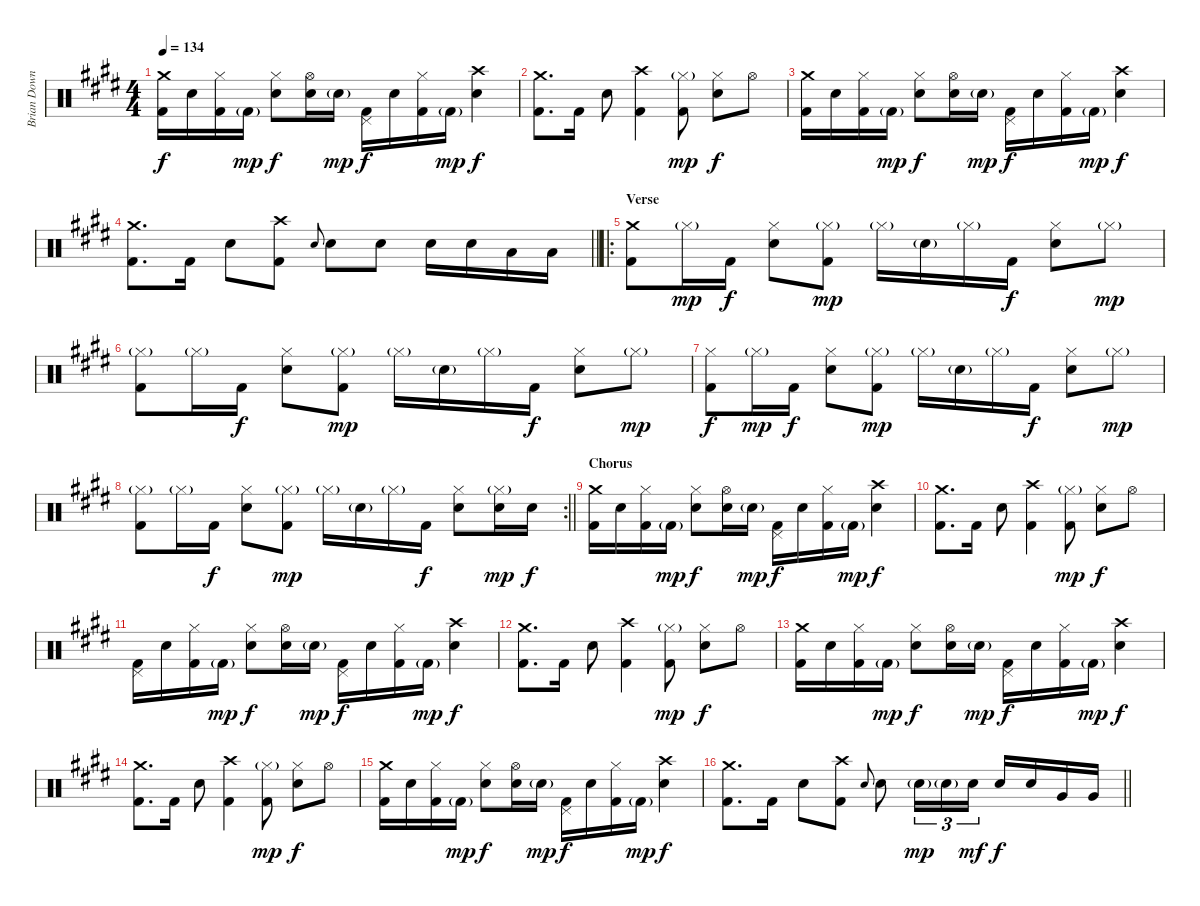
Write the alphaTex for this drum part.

\track ("Brian Downey" "Brian Down") {instrument percussion}
\staff {score}
\articulation defaults
\ts (4 4)
\tempo 134
\clef neutral
\ks e
("Crash medium (hit)" "Kick (hit) 2").16{dy f} "Electric Snare (hit)".16 ("Hi-Hat (closed)" "Kick (hit) 2").16 "Kick (hit) 2"{g}.16{dy mp} ("Hi-Hat (closed)" "Electric Snare (hit)").8{dy f} ("Hi-Hat (open)" "Electric Snare (hit)").16 "Electric Snare (hit)"{g}.16{dy mp} ("Pedal Hi-Hat (hit)" "Kick (hit) 2").16{dy f} "Electric Snare (hit)".16 ("Hi-Hat (closed)" "Kick (hit) 2").16 "Kick (hit) 2"{g}.16{dy mp} ("Crash high (hit)" "Electric Snare (hit)").4{dy f} |
("Crash medium (hit)" "Kick (hit) 2").8{d} "Kick (hit) 2".16 "Electric Snare (hit)".8 ("Crash high (hit)" "Kick (hit) 2").4 ("Hi-Hat (closed)"{g} "Kick (hit) 2").8{dy mp} ("Hi-Hat (closed)" "Electric Snare (hit)").8{dy f} "Hi-Hat (open)".8 |
("Crash medium (hit)" "Kick (hit) 2").16 "Electric Snare (hit)".16 ("Hi-Hat (closed)" "Kick (hit) 2").16 "Kick (hit) 2"{g}.16{dy mp} ("Hi-Hat (closed)" "Electric Snare (hit)").8{dy f} ("Hi-Hat (open)" "Electric Snare (hit)").16 "Electric Snare (hit)"{g}.16{dy mp} ("Pedal Hi-Hat (hit)" "Kick (hit) 2").16{dy f} "Electric Snare (hit)".16 ("Hi-Hat (closed)" "Kick (hit) 2").16 "Kick (hit) 2"{g}.16{dy mp} ("Crash high (hit)" "Electric Snare (hit)").4{dy f} |
\barLineRight lightlight
("Crash medium (hit)" "Kick (hit) 2").8{d} "Kick (hit) 2".16 "Electric Snare (hit)".8 ("Crash high (hit)" "Kick (hit) 2").8 "Electric Snare (hit)".8{gr onbeat} "Electric Snare (hit)".8 "Electric Snare (hit)".8 "Electric Snare (hit)".16 "Electric Snare (hit)".16 "Low Tom (hit)".16 "Low Tom (hit)".16 |
\ro
\section ("" "Verse")
("Crash medium (hit)" "Kick (hit) 2").8 "Hi-Hat (closed)"{g}.16{dy mp} "Kick (hit) 2".16{dy f} ("Hi-Hat (closed)" "Electric Snare (hit)").8 ("Hi-Hat (closed)"{g} "Kick (hit) 2").8{dy mp} "Hi-Hat (closed)"{g}.16 "Electric Snare (hit)"{g}.16 "Hi-Hat (closed)"{g}.16 "Kick (hit) 2".16{dy f} ("Hi-Hat (closed)" "Electric Snare (hit)").8 "Hi-Hat (closed)"{g}.8{dy mp} |
("Hi-Hat (closed)"{g} "Kick (hit) 2").8 "Hi-Hat (closed)"{g}.16 "Kick (hit) 2".16{dy f} ("Hi-Hat (closed)" "Electric Snare (hit)").8 ("Hi-Hat (closed)"{g} "Kick (hit) 2").8{dy mp} "Hi-Hat (closed)"{g}.16 "Electric Snare (hit)"{g}.16 "Hi-Hat (closed)"{g}.16 "Kick (hit) 2".16{dy f} ("Hi-Hat (closed)" "Electric Snare (hit)").8 "Hi-Hat (closed)"{g}.8{dy mp} |
("Hi-Hat (closed)" "Kick (hit) 2").8{dy f} "Hi-Hat (closed)"{g}.16{dy mp} "Kick (hit) 2".16{dy f} ("Hi-Hat (closed)" "Electric Snare (hit)").8 ("Hi-Hat (closed)"{g} "Kick (hit) 2").8{dy mp} "Hi-Hat (closed)"{g}.16 "Electric Snare (hit)"{g}.16 "Hi-Hat (closed)"{g}.16 "Kick (hit) 2".16{dy f} ("Hi-Hat (closed)" "Electric Snare (hit)").8 "Hi-Hat (closed)"{g}.8{dy mp} |
\rc 2
\barLineRight lightlight
("Hi-Hat (closed)"{g} "Kick (hit) 2").8 "Hi-Hat (closed)"{g}.16 "Kick (hit) 2".16{dy f} ("Hi-Hat (closed)" "Electric Snare (hit)").8 ("Hi-Hat (closed)"{g} "Kick (hit) 2").8{dy mp} "Hi-Hat (closed)"{g}.16 "Electric Snare (hit)"{g}.16 "Hi-Hat (closed)"{g}.16 "Kick (hit) 2".16{dy f} ("Hi-Hat (closed)" "Electric Snare (hit)").8 ("Hi-Hat (closed)"{g} "Electric Snare (hit)").16{dy mp} "Electric Snare (hit)".16{dy f} |
\section ("" "Chorus")
("Crash medium (hit)" "Kick (hit) 2").16 "Electric Snare (hit)".16 ("Hi-Hat (closed)" "Kick (hit) 2").16 "Kick (hit) 2"{g}.16{dy mp} ("Hi-Hat (closed)" "Electric Snare (hit)").8{dy f} ("Hi-Hat (open)" "Electric Snare (hit)").16 "Electric Snare (hit)"{g}.16{dy mp} ("Pedal Hi-Hat (hit)" "Kick (hit) 2").16{dy f} "Electric Snare (hit)".16 ("Hi-Hat (closed)" "Kick (hit) 2").16 "Kick (hit) 2"{g}.16{dy mp} ("Crash high (hit)" "Electric Snare (hit)").4{dy f} |
("Crash medium (hit)" "Kick (hit) 2").8{d} "Kick (hit) 2".16 "Electric Snare (hit)".8 ("Crash high (hit)" "Kick (hit) 2").4 ("Hi-Hat (closed)"{g} "Kick (hit) 2").8{dy mp} ("Hi-Hat (closed)" "Electric Snare (hit)").8{dy f} "Hi-Hat (open)".8 |
("Pedal Hi-Hat (hit)" "Kick (hit) 2").16 "Electric Snare (hit)".16 ("Hi-Hat (closed)" "Kick (hit) 2").16 "Kick (hit) 2"{g}.16{dy mp} ("Hi-Hat (closed)" "Electric Snare (hit)").8{dy f} ("Hi-Hat (open)" "Electric Snare (hit)").16 "Electric Snare (hit)"{g}.16{dy mp} ("Pedal Hi-Hat (hit)" "Kick (hit) 2").16{dy f} "Electric Snare (hit)".16 ("Hi-Hat (closed)" "Kick (hit) 2").16 "Kick (hit) 2"{g}.16{dy mp} ("Crash high (hit)" "Electric Snare (hit)").4{dy f} |
("Crash medium (hit)" "Kick (hit) 2").8{d} "Kick (hit) 2".16 "Electric Snare (hit)".8 ("Crash high (hit)" "Kick (hit) 2").4 ("Hi-Hat (closed)"{g} "Kick (hit) 2").8{dy mp} ("Hi-Hat (closed)" "Electric Snare (hit)").8{dy f} "Hi-Hat (open)".8 |
("Crash medium (hit)" "Kick (hit) 2").16 "Electric Snare (hit)".16 ("Hi-Hat (closed)" "Kick (hit) 2").16 "Kick (hit) 2"{g}.16{dy mp} ("Hi-Hat (closed)" "Electric Snare (hit)").8{dy f} ("Hi-Hat (open)" "Electric Snare (hit)").16 "Electric Snare (hit)"{g}.16{dy mp} ("Pedal Hi-Hat (hit)" "Kick (hit) 2").16{dy f} "Electric Snare (hit)".16 ("Hi-Hat (closed)" "Kick (hit) 2").16 "Kick (hit) 2"{g}.16{dy mp} ("Crash high (hit)" "Electric Snare (hit)").4{dy f} |
("Crash medium (hit)" "Kick (hit) 2").8{d} "Kick (hit) 2".16 "Electric Snare (hit)".8 ("Crash high (hit)" "Kick (hit) 2").4 ("Hi-Hat (closed)"{g} "Kick (hit) 2").8{dy mp} ("Hi-Hat (closed)" "Electric Snare (hit)").8{dy f} "Hi-Hat (open)".8 |
("Crash medium (hit)" "Kick (hit) 2").16 "Electric Snare (hit)".16 ("Hi-Hat (closed)" "Kick (hit) 2").16 "Kick (hit) 2"{g}.16{dy mp} ("Hi-Hat (closed)" "Electric Snare (hit)").8{dy f} ("Hi-Hat (open)" "Electric Snare (hit)").16 "Electric Snare (hit)"{g}.16{dy mp} ("Pedal Hi-Hat (hit)" "Kick (hit) 2").16{dy f} "Electric Snare (hit)".16 ("Hi-Hat (closed)" "Kick (hit) 2").16 "Kick (hit) 2"{g}.16{dy mp} ("Crash high (hit)" "Electric Snare (hit)").4{dy f} |
\barLineRight lightlight
("Crash medium (hit)" "Kick (hit) 2").8{d} "Kick (hit) 2".16 "Electric Snare (hit)".8 ("Crash high (hit)" "Kick (hit) 2").8 "Electric Snare (hit)".8{gr onbeat} "Electric Snare (hit)".8 "Electric Snare (hit)"{g}.16{tu (3 2) dy mp} "Electric Snare (hit)"{g}.16{tu (3 2)} "Electric Snare (hit)".16{tu (3 2) dy mf} "Electric Snare (hit)".16{dy f} "Electric Snare (hit)".16 "Very Low Tom (hit)".16 "Very Low Tom (hit)".16
